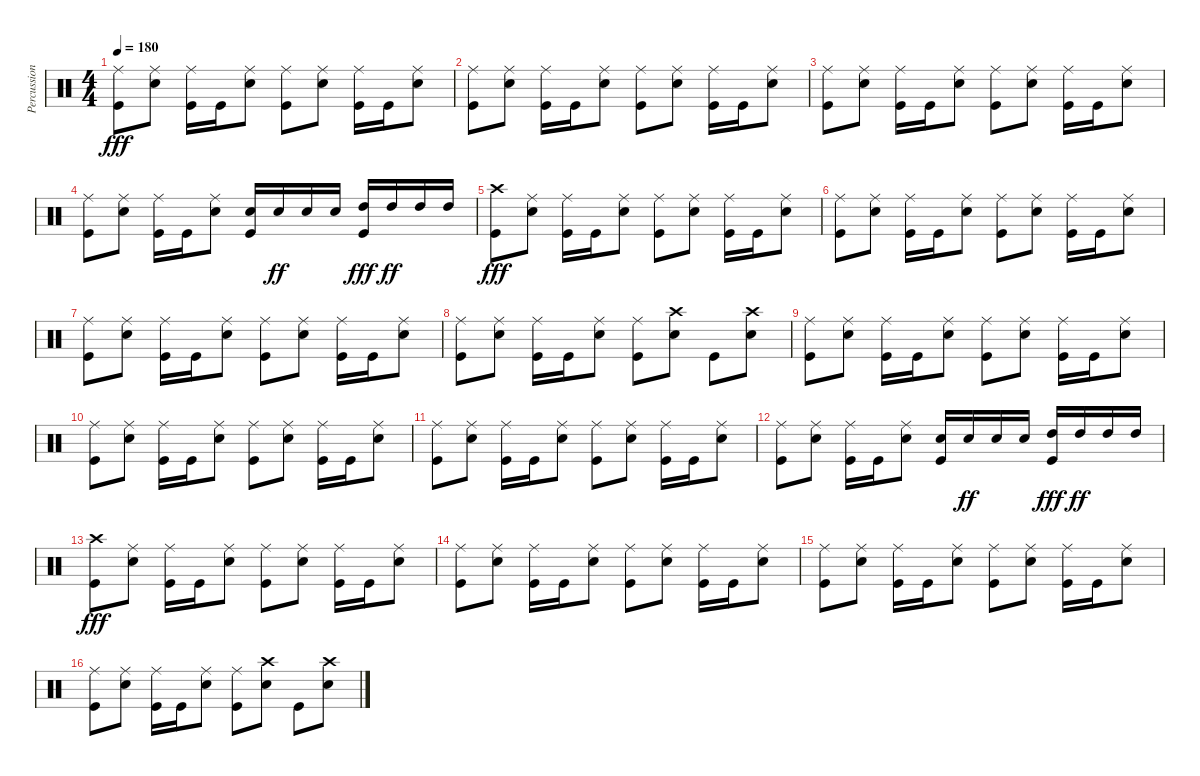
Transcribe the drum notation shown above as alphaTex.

\track ("Percussion" "Percussion") {instrument percussion}
\staff {score}
\articulation defaults
\ts (4 4)
\tempo 180
\clef neutral
\ks c
("Kick (hit)" "Ride (middle)").8{dy fff} ("Snare (hit) 2" "Ride (middle)").8 ("Kick (hit)" "Ride (middle)").16 "Kick (hit)".16 ("Snare (hit) 2" "Ride (middle)").8 ("Kick (hit)" "Ride (middle)").8 ("Snare (hit) 2" "Ride (middle)").8 ("Kick (hit)" "Ride (middle)").16 "Kick (hit)".16 ("Snare (hit) 2" "Ride (middle)").8 |
("Kick (hit)" "Ride (middle)").8 ("Snare (hit) 2" "Ride (middle)").8 ("Kick (hit)" "Ride (middle)").16 "Kick (hit)".16 ("Snare (hit) 2" "Ride (middle)").8 ("Kick (hit)" "Ride (middle)").8 ("Snare (hit) 2" "Ride (middle)").8 ("Kick (hit)" "Ride (middle)").16 "Kick (hit)".16 ("Snare (hit) 2" "Ride (middle)").8 |
("Kick (hit)" "Ride (middle)").8 ("Snare (hit) 2" "Ride (middle)").8 ("Kick (hit)" "Ride (middle)").16 "Kick (hit)".16 ("Snare (hit) 2" "Ride (middle)").8 ("Kick (hit)" "Ride (middle)").8 ("Snare (hit) 2" "Ride (middle)").8 ("Kick (hit)" "Ride (middle)").16 "Kick (hit)".16 ("Snare (hit) 2" "Ride (middle)").8 |
("Kick (hit)" "Ride (middle)").8 ("Snare (hit) 2" "Ride (middle)").8 ("Kick (hit)" "Ride (middle)").16 "Kick (hit)".16 ("Snare (hit) 2" "Ride (middle)").8 ("Kick (hit)" "Snare (hit) 2").16 "Snare (hit) 2".16{dy ff} "Snare (hit) 2".16 "Snare (hit) 2".16 ("Kick (hit)" "High Tom (hit)").16{dy fff} "High Tom (hit)".16{dy ff} "High Tom (hit)".16 "High Tom (hit)".16 |
("Kick (hit)" "Crash high (hit)").8{dy fff} ("Snare (hit) 2" "Ride (middle)").8 ("Kick (hit)" "Ride (middle)").16 "Kick (hit)".16 ("Snare (hit) 2" "Ride (middle)").8 ("Kick (hit)" "Ride (middle)").8 ("Snare (hit) 2" "Ride (middle)").8 ("Kick (hit)" "Ride (middle)").16 "Kick (hit)".16 ("Snare (hit) 2" "Ride (middle)").8 |
("Kick (hit)" "Ride (middle)").8 ("Snare (hit) 2" "Ride (middle)").8 ("Kick (hit)" "Ride (middle)").16 "Kick (hit)".16 ("Snare (hit) 2" "Ride (middle)").8 ("Kick (hit)" "Ride (middle)").8 ("Snare (hit) 2" "Ride (middle)").8 ("Kick (hit)" "Ride (middle)").16 "Kick (hit)".16 ("Snare (hit) 2" "Ride (middle)").8 |
("Kick (hit)" "Ride (middle)").8 ("Snare (hit) 2" "Ride (middle)").8 ("Kick (hit)" "Ride (middle)").16 "Kick (hit)".16 ("Snare (hit) 2" "Ride (middle)").8 ("Kick (hit)" "Ride (middle)").8 ("Snare (hit) 2" "Ride (middle)").8 ("Kick (hit)" "Ride (middle)").16 "Kick (hit)".16 ("Snare (hit) 2" "Ride (middle)").8 |
("Kick (hit)" "Ride (middle)").8 ("Snare (hit) 2" "Ride (middle)").8 ("Kick (hit)" "Ride (middle)").16 "Kick (hit)".16 ("Snare (hit) 2" "Ride (middle)").8 ("Kick (hit)" "Ride (middle)").8 ("Snare (hit) 2" "Crash high (hit)").8 "Kick (hit)".8 ("Snare (hit) 2" "Crash high (hit)").8 |
("Kick (hit)" "Ride (middle)").8 ("Snare (hit) 2" "Ride (middle)").8 ("Kick (hit)" "Ride (middle)").16 "Kick (hit)".16 ("Snare (hit) 2" "Ride (middle)").8 ("Kick (hit)" "Ride (middle)").8 ("Snare (hit) 2" "Ride (middle)").8 ("Kick (hit)" "Ride (middle)").16 "Kick (hit)".16 ("Snare (hit) 2" "Ride (middle)").8 |
("Kick (hit)" "Ride (middle)").8 ("Snare (hit) 2" "Ride (middle)").8 ("Kick (hit)" "Ride (middle)").16 "Kick (hit)".16 ("Snare (hit) 2" "Ride (middle)").8 ("Kick (hit)" "Ride (middle)").8 ("Snare (hit) 2" "Ride (middle)").8 ("Kick (hit)" "Ride (middle)").16 "Kick (hit)".16 ("Snare (hit) 2" "Ride (middle)").8 |
("Kick (hit)" "Ride (middle)").8 ("Snare (hit) 2" "Ride (middle)").8 ("Kick (hit)" "Ride (middle)").16 "Kick (hit)".16 ("Snare (hit) 2" "Ride (middle)").8 ("Kick (hit)" "Ride (middle)").8 ("Snare (hit) 2" "Ride (middle)").8 ("Kick (hit)" "Ride (middle)").16 "Kick (hit)".16 ("Snare (hit) 2" "Ride (middle)").8 |
("Kick (hit)" "Ride (middle)").8 ("Snare (hit) 2" "Ride (middle)").8 ("Kick (hit)" "Ride (middle)").16 "Kick (hit)".16 ("Snare (hit) 2" "Ride (middle)").8 ("Kick (hit)" "Snare (hit) 2").16 "Snare (hit) 2".16{dy ff} "Snare (hit) 2".16 "Snare (hit) 2".16 ("Kick (hit)" "High Tom (hit)").16{dy fff} "High Tom (hit)".16{dy ff} "High Tom (hit)".16 "High Tom (hit)".16 |
("Kick (hit)" "Crash high (hit)").8{dy fff} ("Snare (hit) 2" "Ride (middle)").8 ("Kick (hit)" "Ride (middle)").16 "Kick (hit)".16 ("Snare (hit) 2" "Ride (middle)").8 ("Kick (hit)" "Ride (middle)").8 ("Snare (hit) 2" "Ride (middle)").8 ("Kick (hit)" "Ride (middle)").16 "Kick (hit)".16 ("Snare (hit) 2" "Ride (middle)").8 |
("Kick (hit)" "Ride (middle)").8 ("Snare (hit) 2" "Ride (middle)").8 ("Kick (hit)" "Ride (middle)").16 "Kick (hit)".16 ("Snare (hit) 2" "Ride (middle)").8 ("Kick (hit)" "Ride (middle)").8 ("Snare (hit) 2" "Ride (middle)").8 ("Kick (hit)" "Ride (middle)").16 "Kick (hit)".16 ("Snare (hit) 2" "Ride (middle)").8 |
("Kick (hit)" "Ride (middle)").8 ("Snare (hit) 2" "Ride (middle)").8 ("Kick (hit)" "Ride (middle)").16 "Kick (hit)".16 ("Snare (hit) 2" "Ride (middle)").8 ("Kick (hit)" "Ride (middle)").8 ("Snare (hit) 2" "Ride (middle)").8 ("Kick (hit)" "Ride (middle)").16 "Kick (hit)".16 ("Snare (hit) 2" "Ride (middle)").8 |
("Kick (hit)" "Ride (middle)").8 ("Snare (hit) 2" "Ride (middle)").8 ("Kick (hit)" "Ride (middle)").16 "Kick (hit)".16 ("Snare (hit) 2" "Ride (middle)").8 ("Kick (hit)" "Ride (middle)").8 ("Snare (hit) 2" "Crash high (hit)").8 "Kick (hit)".8 ("Snare (hit) 2" "Crash high (hit)").8
